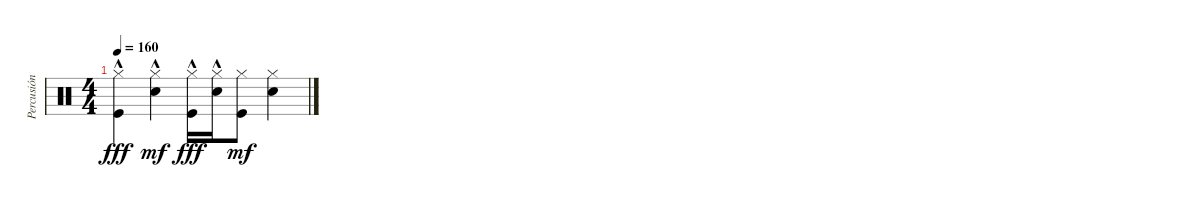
\track ("Percusión" "Percusión") {instrument percussion}
\staff {score}
\articulation defaults
\ts (4 4)
\tempo 160
\clef neutral
\ks c
("Hi-Hat (closed)"{hac} "Kick (hit)"{hac}).4{dy fff} ("Hi-Hat (closed)"{hac} "Snare (hit) 2").4{dy mf} ("Hi-Hat (closed)"{hac} "Kick (hit)"{hac}).16{dy fff} ("Hi-Hat (closed)"{hac} "Snare (hit) 2"{hac}).16 ("Kick (hit)" "Hi-Hat (closed)").8{dy mf} ("Hi-Hat (closed)" "Snare (hit) 2").4
